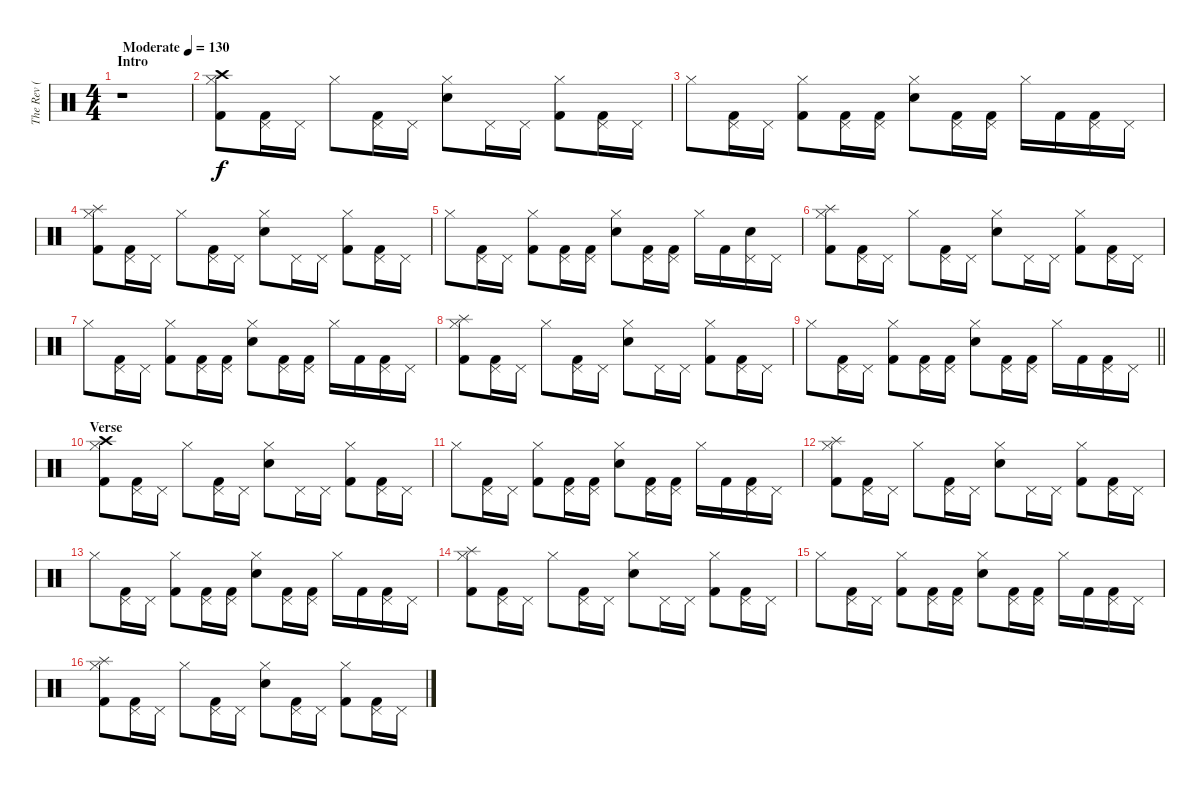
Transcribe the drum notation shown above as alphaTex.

\track ("The Rev ( Drums )" "The Rev ( ") {instrument percussion}
\staff {score}
\articulation defaults
\ts (4 4)
\section ("" "Intro")
\tempo (130 "Moderate")
\clef neutral
\ks c
r.1{dy f} |
("Crash high (hit)" "Hi-Hat (closed)" "Kick (hit) 2").8 ("Pedal Hi-Hat (hit)" "Kick (hit) 2").16 "Pedal Hi-Hat (hit)".16 "Hi-Hat (closed)".8 ("Pedal Hi-Hat (hit)" "Kick (hit) 2").16 "Pedal Hi-Hat (hit)".16 ("Hi-Hat (closed)" "Snare (hit) 2").8 "Pedal Hi-Hat (hit)".16 "Pedal Hi-Hat (hit)".16 ("Hi-Hat (closed)" "Kick (hit) 2").8 ("Pedal Hi-Hat (hit)" "Kick (hit) 2").16 "Pedal Hi-Hat (hit)".16 |
"Hi-Hat (closed)".8 ("Pedal Hi-Hat (hit)" "Kick (hit) 2").16 "Pedal Hi-Hat (hit)".16 ("Hi-Hat (closed)" "Kick (hit) 2").8 ("Pedal Hi-Hat (hit)" "Kick (hit) 2").16 ("Pedal Hi-Hat (hit)" "Kick (hit) 2").16 ("Hi-Hat (closed)" "Snare (hit) 2").8 ("Pedal Hi-Hat (hit)" "Kick (hit) 2").16 ("Pedal Hi-Hat (hit)" "Kick (hit) 2").16 "Hi-Hat (closed)".16 "Kick (hit) 2".16 ("Pedal Hi-Hat (hit)" "Kick (hit) 2").16 "Pedal Hi-Hat (hit)".16 |
("Splash (hit)" "Hi-Hat (closed)" "Kick (hit) 2").8 ("Pedal Hi-Hat (hit)" "Kick (hit) 2").16 "Pedal Hi-Hat (hit)".16 "Hi-Hat (closed)".8 ("Pedal Hi-Hat (hit)" "Kick (hit) 2").16 "Pedal Hi-Hat (hit)".16 ("Hi-Hat (closed)" "Snare (hit) 2").8 "Pedal Hi-Hat (hit)".16 "Pedal Hi-Hat (hit)".16 ("Hi-Hat (closed)" "Kick (hit) 2").8 ("Pedal Hi-Hat (hit)" "Kick (hit) 2").16 "Pedal Hi-Hat (hit)".16 |
"Hi-Hat (closed)".8 ("Pedal Hi-Hat (hit)" "Kick (hit) 2").16 "Pedal Hi-Hat (hit)".16 ("Hi-Hat (closed)" "Kick (hit) 2").8 ("Pedal Hi-Hat (hit)" "Kick (hit) 2").16 ("Pedal Hi-Hat (hit)" "Kick (hit) 2").16 ("Hi-Hat (closed)" "Snare (hit) 2").8 ("Pedal Hi-Hat (hit)" "Kick (hit) 2").16 ("Pedal Hi-Hat (hit)" "Kick (hit) 2").16 "Hi-Hat (closed)".16 "Kick (hit) 2".16 ("Pedal Hi-Hat (hit)" "Snare (hit) 2").16 "Pedal Hi-Hat (hit)".16 |
("Splash (hit)" "Hi-Hat (closed)" "Kick (hit) 2").8 ("Pedal Hi-Hat (hit)" "Kick (hit) 2").16 "Pedal Hi-Hat (hit)".16 "Hi-Hat (closed)".8 ("Pedal Hi-Hat (hit)" "Kick (hit) 2").16 "Pedal Hi-Hat (hit)".16 ("Hi-Hat (closed)" "Snare (hit) 2").8 "Pedal Hi-Hat (hit)".16 "Pedal Hi-Hat (hit)".16 ("Hi-Hat (closed)" "Kick (hit) 2").8 ("Pedal Hi-Hat (hit)" "Kick (hit) 2").16 "Pedal Hi-Hat (hit)".16 |
"Hi-Hat (closed)".8 ("Pedal Hi-Hat (hit)" "Kick (hit) 2").16 "Pedal Hi-Hat (hit)".16 ("Hi-Hat (closed)" "Kick (hit) 2").8 ("Pedal Hi-Hat (hit)" "Kick (hit) 2").16 ("Pedal Hi-Hat (hit)" "Kick (hit) 2").16 ("Hi-Hat (closed)" "Snare (hit) 2").8 ("Pedal Hi-Hat (hit)" "Kick (hit) 2").16 ("Pedal Hi-Hat (hit)" "Kick (hit) 2").16 "Hi-Hat (closed)".16 "Kick (hit) 2".16 ("Pedal Hi-Hat (hit)" "Kick (hit) 2").16 "Pedal Hi-Hat (hit)".16 |
("Splash (hit)" "Hi-Hat (closed)" "Kick (hit) 2").8 ("Pedal Hi-Hat (hit)" "Kick (hit) 2").16 "Pedal Hi-Hat (hit)".16 "Hi-Hat (closed)".8 ("Pedal Hi-Hat (hit)" "Kick (hit) 2").16 "Pedal Hi-Hat (hit)".16 ("Hi-Hat (closed)" "Snare (hit) 2").8 "Pedal Hi-Hat (hit)".16 "Pedal Hi-Hat (hit)".16 ("Hi-Hat (closed)" "Kick (hit) 2").8 ("Pedal Hi-Hat (hit)" "Kick (hit) 2").16 "Pedal Hi-Hat (hit)".16 |
\barLineRight lightlight "Hi-Hat (closed)".8
("Pedal Hi-Hat (hit)" "Kick (hit) 2").16 "Pedal Hi-Hat (hit)".16 ("Hi-Hat (closed)" "Kick (hit) 2").8 ("Pedal Hi-Hat (hit)" "Kick (hit) 2").16 ("Pedal Hi-Hat (hit)" "Kick (hit) 2").16 ("Hi-Hat (closed)" "Snare (hit) 2").8 ("Pedal Hi-Hat (hit)" "Kick (hit) 2").16 ("Pedal Hi-Hat (hit)" "Kick (hit) 2").16 "Hi-Hat (closed)".16 "Kick (hit) 2".16 ("Pedal Hi-Hat (hit)" "Kick (hit) 2").16 "Pedal Hi-Hat (hit)".16 |
\section ("" "Verse")
("Crash high (hit)" "Hi-Hat (closed)" "Kick (hit) 2").8 ("Pedal Hi-Hat (hit)" "Kick (hit) 2").16 "Pedal Hi-Hat (hit)".16 "Hi-Hat (closed)".8 ("Pedal Hi-Hat (hit)" "Kick (hit) 2").16 "Pedal Hi-Hat (hit)".16 ("Hi-Hat (closed)" "Snare (hit) 2").8 "Pedal Hi-Hat (hit)".16 "Pedal Hi-Hat (hit)".16 ("Hi-Hat (closed)" "Kick (hit) 2").8 ("Pedal Hi-Hat (hit)" "Kick (hit) 2").16 "Pedal Hi-Hat (hit)".16 |
"Hi-Hat (closed)".8 ("Pedal Hi-Hat (hit)" "Kick (hit) 2").16 "Pedal Hi-Hat (hit)".16 ("Hi-Hat (closed)" "Kick (hit) 2").8 ("Pedal Hi-Hat (hit)" "Kick (hit) 2").16 ("Pedal Hi-Hat (hit)" "Kick (hit) 2").16 ("Hi-Hat (closed)" "Snare (hit) 2").8 ("Pedal Hi-Hat (hit)" "Kick (hit) 2").16 ("Pedal Hi-Hat (hit)" "Kick (hit) 2").16 "Hi-Hat (closed)".16 "Kick (hit) 2".16 ("Pedal Hi-Hat (hit)" "Kick (hit) 2").16 "Pedal Hi-Hat (hit)".16 |
("Splash (hit)" "Hi-Hat (closed)" "Kick (hit) 2").8 ("Pedal Hi-Hat (hit)" "Kick (hit) 2").16 "Pedal Hi-Hat (hit)".16 "Hi-Hat (closed)".8 ("Pedal Hi-Hat (hit)" "Kick (hit) 2").16 "Pedal Hi-Hat (hit)".16 ("Hi-Hat (closed)" "Snare (hit) 2").8 "Pedal Hi-Hat (hit)".16 "Pedal Hi-Hat (hit)".16 ("Hi-Hat (closed)" "Kick (hit) 2").8 ("Pedal Hi-Hat (hit)" "Kick (hit) 2").16 "Pedal Hi-Hat (hit)".16 |
"Hi-Hat (closed)".8 ("Pedal Hi-Hat (hit)" "Kick (hit) 2").16 "Pedal Hi-Hat (hit)".16 ("Hi-Hat (closed)" "Kick (hit) 2").8 ("Pedal Hi-Hat (hit)" "Kick (hit) 2").16 ("Pedal Hi-Hat (hit)" "Kick (hit) 2").16 ("Hi-Hat (closed)" "Snare (hit) 2").8 ("Pedal Hi-Hat (hit)" "Kick (hit) 2").16 ("Pedal Hi-Hat (hit)" "Kick (hit) 2").16 "Hi-Hat (closed)".16 "Kick (hit) 2".16 ("Pedal Hi-Hat (hit)" "Kick (hit) 2").16 "Pedal Hi-Hat (hit)".16 |
("Splash (hit)" "Hi-Hat (closed)" "Kick (hit) 2").8 ("Pedal Hi-Hat (hit)" "Kick (hit) 2").16 "Pedal Hi-Hat (hit)".16 "Hi-Hat (closed)".8 ("Pedal Hi-Hat (hit)" "Kick (hit) 2").16 "Pedal Hi-Hat (hit)".16 ("Hi-Hat (closed)" "Snare (hit) 2").8 "Pedal Hi-Hat (hit)".16 "Pedal Hi-Hat (hit)".16 ("Hi-Hat (closed)" "Kick (hit) 2").8 ("Pedal Hi-Hat (hit)" "Kick (hit) 2").16 "Pedal Hi-Hat (hit)".16 |
"Hi-Hat (closed)".8 ("Pedal Hi-Hat (hit)" "Kick (hit) 2").16 "Pedal Hi-Hat (hit)".16 ("Hi-Hat (closed)" "Kick (hit) 2").8 ("Pedal Hi-Hat (hit)" "Kick (hit) 2").16 ("Pedal Hi-Hat (hit)" "Kick (hit) 2").16 ("Hi-Hat (closed)" "Snare (hit) 2").8 ("Pedal Hi-Hat (hit)" "Kick (hit) 2").16 ("Pedal Hi-Hat (hit)" "Kick (hit) 2").16 "Hi-Hat (closed)".16 "Kick (hit) 2".16 ("Pedal Hi-Hat (hit)" "Kick (hit) 2").16 "Pedal Hi-Hat (hit)".16 |
("Splash (hit)" "Hi-Hat (closed)" "Kick (hit) 2").8 ("Pedal Hi-Hat (hit)" "Kick (hit) 2").16 "Pedal Hi-Hat (hit)".16 "Hi-Hat (closed)".8 ("Pedal Hi-Hat (hit)" "Kick (hit) 2").16 "Pedal Hi-Hat (hit)".16 ("Hi-Hat (closed)" "Snare (hit) 2").8 ("Pedal Hi-Hat (hit)" "Kick (hit) 2").16 "Pedal Hi-Hat (hit)".16 ("Hi-Hat (closed)" "Kick (hit) 2").8 ("Pedal Hi-Hat (hit)" "Kick (hit) 2").16 "Pedal Hi-Hat (hit)".16
